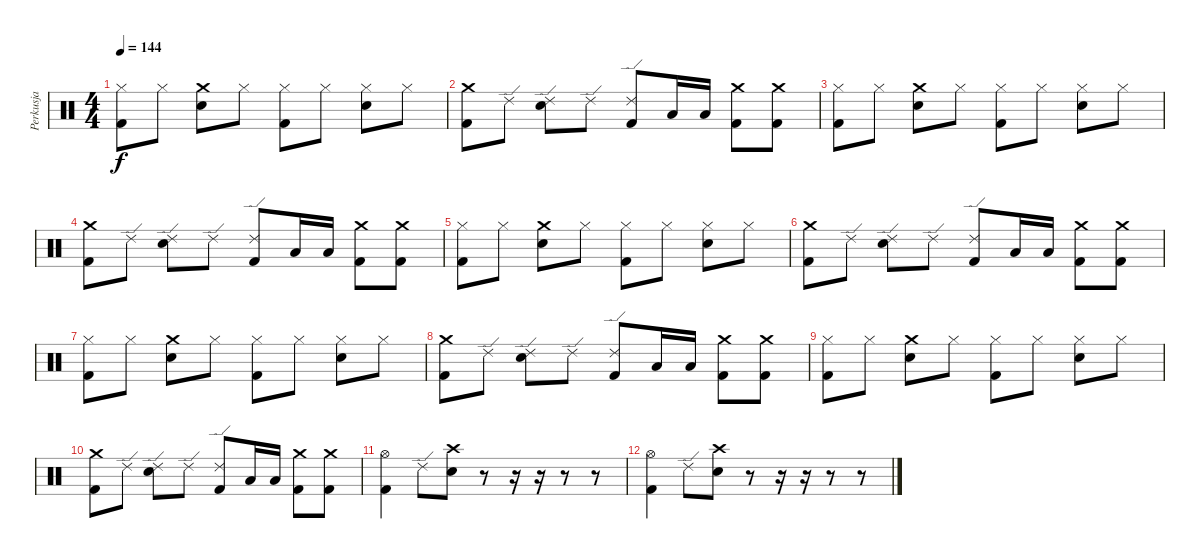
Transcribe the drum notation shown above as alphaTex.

\track ("Perkusja" "Perkusja") {instrument percussion}
\staff {score}
\articulation defaults
\ts (4 4)
\tempo 144
\clef neutral
\ks c
("Hi-Hat (closed)" "Kick (hit) 2").8{dy f} "Hi-Hat (closed)".8 ("Crash medium (hit)" "Snare (hit) 2").8 "Hi-Hat (closed)".8 ("Hi-Hat (closed)" "Kick (hit) 2").8 "Hi-Hat (closed)".8 ("Snare (hit) 2" "Hi-Hat (closed)").8 "Hi-Hat (closed)".8 |
("Crash medium (hit)" "Kick (hit) 2").8 "Ride (edge) 2".8 ("Snare (hit) 2" "Ride (edge) 2").8 "Ride (edge) 2".8 ("Ride (edge) 2" "Kick (hit) 2").8 "Low Tom (hit)".16 "Low Tom (hit)".16 ("Crash medium (hit)" "Kick (hit) 2").8 ("Crash medium (hit)" "Kick (hit) 2").8 |
("Hi-Hat (closed)" "Kick (hit) 2").8 "Hi-Hat (closed)".8 ("Crash medium (hit)" "Snare (hit) 2").8 "Hi-Hat (closed)".8 ("Hi-Hat (closed)" "Kick (hit) 2").8 "Hi-Hat (closed)".8 ("Snare (hit) 2" "Hi-Hat (closed)").8 "Hi-Hat (closed)".8 |
("Crash medium (hit)" "Kick (hit) 2").8 "Ride (edge) 2".8 ("Snare (hit) 2" "Ride (edge) 2").8 "Ride (edge) 2".8 ("Ride (edge) 2" "Kick (hit) 2").8 "Low Tom (hit)".16 "Low Tom (hit)".16 ("Crash medium (hit)" "Kick (hit) 2").8 ("Crash medium (hit)" "Kick (hit) 2").8 |
("Hi-Hat (closed)" "Kick (hit) 2").8 "Hi-Hat (closed)".8 ("Crash medium (hit)" "Snare (hit) 2").8 "Hi-Hat (closed)".8 ("Hi-Hat (closed)" "Kick (hit) 2").8 "Hi-Hat (closed)".8 ("Snare (hit) 2" "Hi-Hat (closed)").8 "Hi-Hat (closed)".8 |
("Crash medium (hit)" "Kick (hit) 2").8 "Ride (edge) 2".8 ("Snare (hit) 2" "Ride (edge) 2").8 "Ride (edge) 2".8 ("Ride (edge) 2" "Kick (hit) 2").8 "Low Tom (hit)".16 "Low Tom (hit)".16 ("Crash medium (hit)" "Kick (hit) 2").8 ("Crash medium (hit)" "Kick (hit) 2").8 |
("Hi-Hat (closed)" "Kick (hit) 2").8 "Hi-Hat (closed)".8 ("Crash medium (hit)" "Snare (hit) 2").8 "Hi-Hat (closed)".8 ("Hi-Hat (closed)" "Kick (hit) 2").8 "Hi-Hat (closed)".8 ("Snare (hit) 2" "Hi-Hat (closed)").8 "Hi-Hat (closed)".8 |
("Crash medium (hit)" "Kick (hit) 2").8 "Ride (edge) 2".8 ("Snare (hit) 2" "Ride (edge) 2").8 "Ride (edge) 2".8 ("Ride (edge) 2" "Kick (hit) 2").8 "Low Tom (hit)".16 "Low Tom (hit)".16 ("Crash medium (hit)" "Kick (hit) 2").8 ("Crash medium (hit)" "Kick (hit) 2").8 |
("Hi-Hat (closed)" "Kick (hit) 2").8 "Hi-Hat (closed)".8 ("Crash medium (hit)" "Snare (hit) 2").8 "Hi-Hat (closed)".8 ("Hi-Hat (closed)" "Kick (hit) 2").8 "Hi-Hat (closed)".8 ("Snare (hit) 2" "Hi-Hat (closed)").8 "Hi-Hat (closed)".8 |
("Crash medium (hit)" "Kick (hit) 2").8 "Ride (edge) 2".8 ("Snare (hit) 2" "Ride (edge) 2").8 "Ride (edge) 2".8 ("Ride (edge) 2" "Kick (hit) 2").8 "Low Tom (hit)".16 "Low Tom (hit)".16 ("Crash medium (hit)" "Kick (hit) 2").8 ("Crash medium (hit)" "Kick (hit) 2").8 |
("Hi-Hat (open)" "Kick (hit) 2").4 "Ride (edge) 2".8 ("Crash high (hit)" "Snare (hit) 2").8 r.8 r.16 r.16 r.8 r.8 |
("Hi-Hat (open)" "Kick (hit) 2").4 "Ride (edge) 2".8 ("Crash high (hit)" "Snare (hit) 2").8 r.8 r.16 r.16 r.8 r.8
